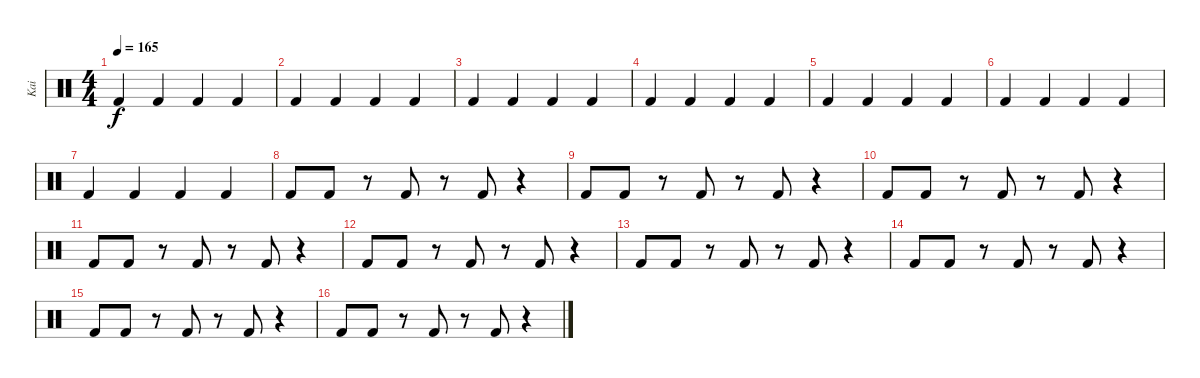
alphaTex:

\track ("Kai" "Kai") {instrument percussion}
\staff {score}
\articulation defaults
\ts (4 4)
\tempo 165
\clef neutral
\ks c "Kick (hit) 2".4{dy f} "Kick (hit) 2".4 "Kick (hit) 2".4 "Kick (hit) 2".4
|
"Kick (hit) 2".4 "Kick (hit) 2".4 "Kick (hit) 2".4 "Kick (hit) 2".4 |
"Kick (hit) 2".4 "Kick (hit) 2".4 "Kick (hit) 2".4 "Kick (hit) 2".4 |
"Kick (hit) 2".4 "Kick (hit) 2".4 "Kick (hit) 2".4 "Kick (hit) 2".4 |
"Kick (hit) 2".4 "Kick (hit) 2".4 "Kick (hit) 2".4 "Kick (hit) 2".4 |
"Kick (hit) 2".4 "Kick (hit) 2".4 "Kick (hit) 2".4 "Kick (hit) 2".4 |
"Kick (hit) 2".4 "Kick (hit) 2".4 "Kick (hit) 2".4 "Kick (hit) 2".4 |
"Kick (hit) 2".8 "Kick (hit) 2".8 r.8 "Kick (hit) 2".8 r.8 "Kick (hit) 2".8 r.4 |
"Kick (hit) 2".8 "Kick (hit) 2".8 r.8 "Kick (hit) 2".8 r.8 "Kick (hit) 2".8 r.4 |
"Kick (hit) 2".8 "Kick (hit) 2".8 r.8 "Kick (hit) 2".8 r.8 "Kick (hit) 2".8 r.4 |
"Kick (hit) 2".8 "Kick (hit) 2".8 r.8 "Kick (hit) 2".8 r.8 "Kick (hit) 2".8 r.4 |
"Kick (hit) 2".8 "Kick (hit) 2".8 r.8 "Kick (hit) 2".8 r.8 "Kick (hit) 2".8 r.4 |
"Kick (hit) 2".8 "Kick (hit) 2".8 r.8 "Kick (hit) 2".8 r.8 "Kick (hit) 2".8 r.4 |
"Kick (hit) 2".8 "Kick (hit) 2".8 r.8 "Kick (hit) 2".8 r.8 "Kick (hit) 2".8 r.4 |
"Kick (hit) 2".8 "Kick (hit) 2".8 r.8 "Kick (hit) 2".8 r.8 "Kick (hit) 2".8 r.4 |
"Kick (hit) 2".8 "Kick (hit) 2".8 r.8 "Kick (hit) 2".8 r.8 "Kick (hit) 2".8 r.4
